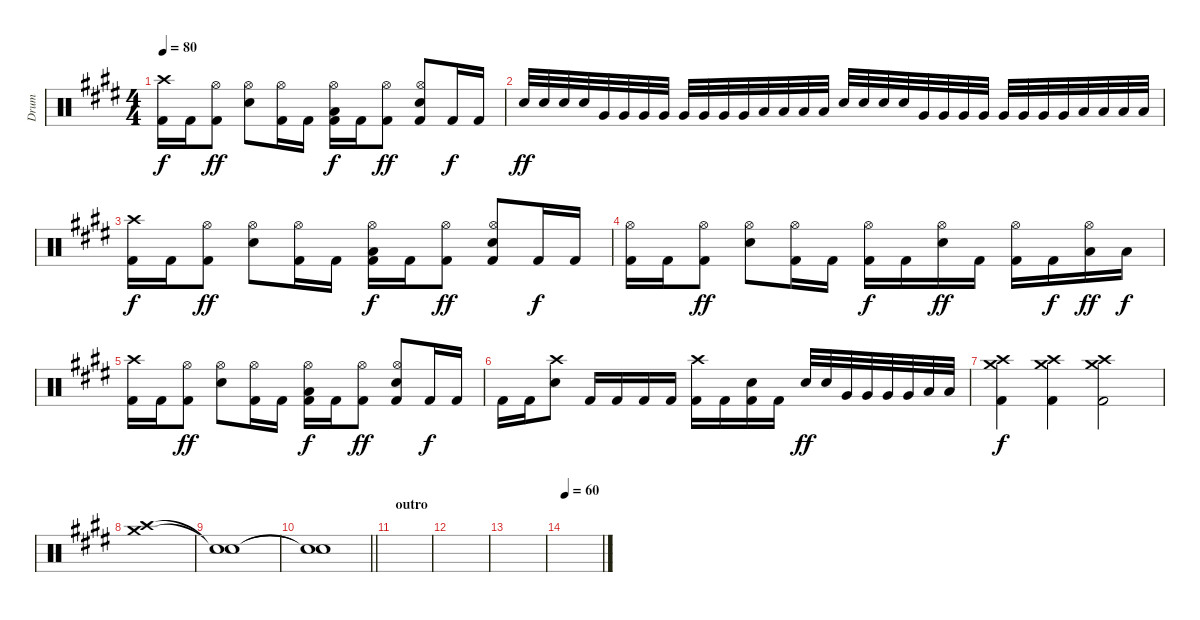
\track ("Drum" "Drum") {instrument percussion}
\staff {score}
\articulation defaults
\ts (4 4)
\tempo 80
\clef neutral
\ks e
("Crash high (hit)" "Kick (hit) 2").16{dy f} "Kick (hit) 2".16 ("Hi-Hat (open)" "Kick (hit) 2").8{dy ff} ("Hi-Hat (open)" "Snare (hit) 2").8 ("Hi-Hat (open)" "Kick (hit) 2").16 "Kick (hit) 2".16 ("Hi-Hat (open)" "Low Tom (hit)" "Kick (hit) 2").16{dy f} "Kick (hit) 2".16 ("Hi-Hat (open)" "Kick (hit) 2").8{dy ff} ("Hi-Hat (open)" "Snare (hit) 2" "Kick (hit) 2").8 "Kick (hit) 2".16{dy f} "Kick (hit) 2".16 |
"Snare (hit) 2".32{dy ff} "Snare (hit) 2".32 "Snare (hit) 2".32 "Snare (hit) 2".32 "Very Low Tom (hit)".32 "Very Low Tom (hit)".32 "Very Low Tom (hit)".32 "Very Low Tom (hit)".32 "Very Low Tom (hit)".32 "Very Low Tom (hit)".32 "Very Low Tom (hit)".32 "Very Low Tom (hit)".32 "Low Tom (hit)".32 "Low Tom (hit)".32 "Low Tom (hit)".32 "Low Tom (hit)".32 "Snare (hit) 2".32 "Snare (hit) 2".32 "Snare (hit) 2".32 "Snare (hit) 2".32 "Very Low Tom (hit)".32 "Very Low Tom (hit)".32 "Very Low Tom (hit)".32 "Very Low Tom (hit)".32 "Very Low Tom (hit)".32 "Very Low Tom (hit)".32 "Very Low Tom (hit)".32 "Very Low Tom (hit)".32 "Low Tom (hit)".32 "Low Tom (hit)".32 "Low Tom (hit)".32 "Low Tom (hit)".32 |
("Crash high (hit)" "Kick (hit) 2").16{dy f} "Kick (hit) 2".16 ("Hi-Hat (open)" "Kick (hit) 2").8{dy ff} ("Hi-Hat (open)" "Snare (hit) 2").8 ("Hi-Hat (open)" "Kick (hit) 2").16 "Kick (hit) 2".16 ("Hi-Hat (open)" "Low Tom (hit)" "Kick (hit) 2").16{dy f} "Kick (hit) 2".16 ("Hi-Hat (open)" "Kick (hit) 2").8{dy ff} ("Hi-Hat (open)" "Snare (hit) 2" "Kick (hit) 2").8 "Kick (hit) 2".16{dy f} "Kick (hit) 2".16 |
("Hi-Hat (open)" "Kick (hit) 2").16 "Kick (hit) 2".16 ("Hi-Hat (open)" "Kick (hit) 2").8{dy ff} ("Hi-Hat (open)" "Snare (hit) 2").8 ("Hi-Hat (open)" "Kick (hit) 2").16 "Kick (hit) 2".16 ("Hi-Hat (open)" "Kick (hit) 2").16{dy f} "Kick (hit) 2".16 ("Hi-Hat (open)" "Snare (hit) 2").16{dy ff} "Kick (hit) 2".16 ("Hi-Hat (open)" "Kick (hit) 2").16 "Kick (hit) 2".16{dy f} ("Hi-Hat (open)" "Low Tom (hit)").16{dy ff} "Low Tom (hit)".16{dy f} |
("Crash high (hit)" "Kick (hit) 2").16 "Kick (hit) 2".16 ("Hi-Hat (open)" "Kick (hit) 2").8{dy ff} ("Hi-Hat (open)" "Snare (hit) 2").8 ("Hi-Hat (open)" "Kick (hit) 2").16 "Kick (hit) 2".16 ("Hi-Hat (open)" "Low Tom (hit)" "Kick (hit) 2").16{dy f} "Kick (hit) 2".16 ("Hi-Hat (open)" "Kick (hit) 2").8{dy ff} ("Hi-Hat (open)" "Snare (hit) 2" "Kick (hit) 2").8 "Kick (hit) 2".16{dy f} "Kick (hit) 2".16 |
"Kick (hit) 2".16 "Kick (hit) 2".16 ("Crash high (hit)" "Snare (hit) 2").8 "Kick (hit) 2".16 "Kick (hit) 2".16 "Kick (hit) 2".16 "Kick (hit) 2".16 ("Crash high (hit)" "Kick (hit) 2").16 "Kick (hit) 2".16 ("Snare (hit) 2" "Kick (hit) 2").16 "Kick (hit) 2".16 "Snare (hit) 2".32{dy ff} "Snare (hit) 2".32 "Very Low Tom (hit)".32 "Very Low Tom (hit)".32 "Very Low Tom (hit)".32 "Very Low Tom (hit)".32 "Low Tom (hit)".32 "Low Tom (hit)".32 |
("Crash high (hit)" "Crash medium (hit)" "Kick (hit) 2").4{dy f} ("Crash high (hit)" "Crash medium (hit)" "Kick (hit) 2").4 ("Crash high (hit)" "Crash medium (hit)" "Kick (hit) 2").2 |
("Crash high (hit)" "Crash medium (hit)").1 |
("Snare (hit)"{t} "Snare (hit)"{t}).1 |
\barLineRight lightlight
("Snare (hit)"{t} "Snare (hit)"{t}).1 |
\section ("" "outro")
|
|
|
\tempo 60
